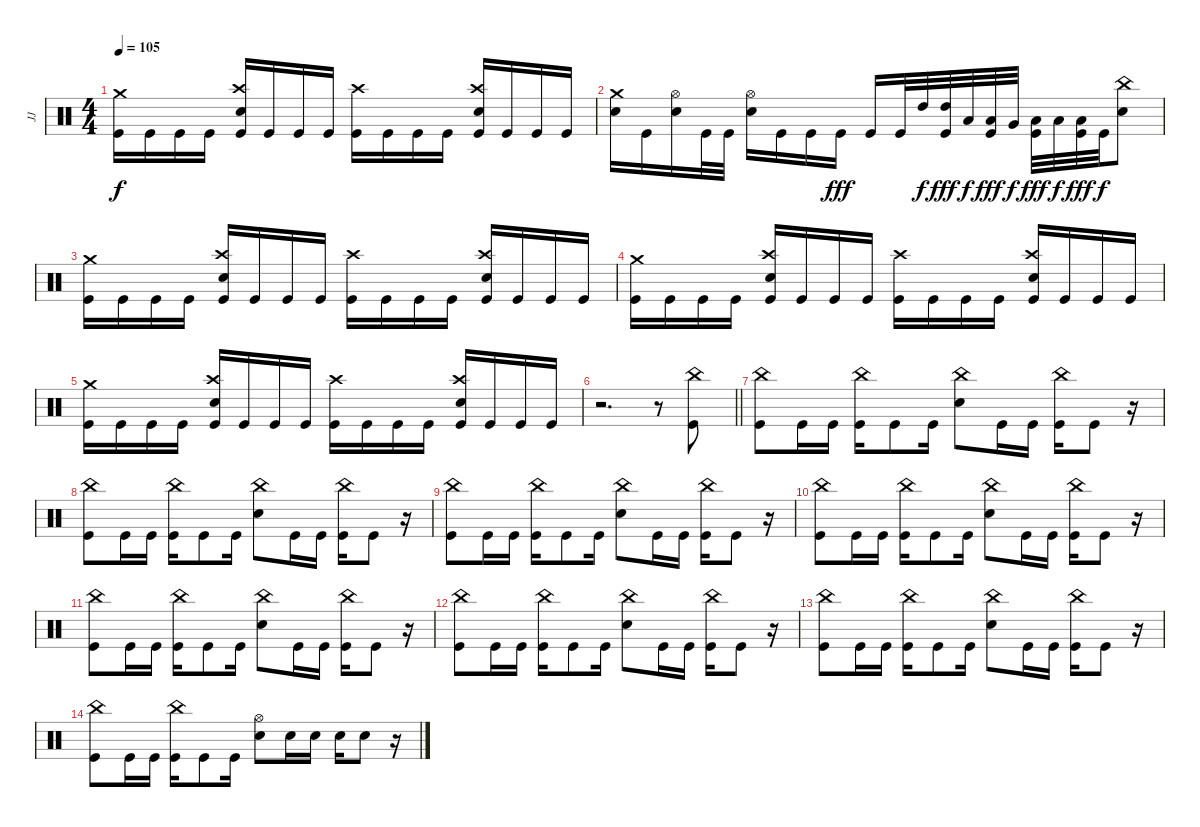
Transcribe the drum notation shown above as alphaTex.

\track ("JJ" "JJ") {instrument percussion}
\staff {score}
\articulation defaults
\ts (4 4)
\tempo 105
\clef neutral
\ks c
("Crash medium (hit)" "Kick (hit)").16{dy f} "Kick (hit)".16 "Kick (hit)".16 "Kick (hit)".16 ("Crash high (hit)" "Electric Snare (hit)" "Kick (hit)").16 "Kick (hit)".16 "Kick (hit)".16 "Kick (hit)".16 ("Crash high (hit)" "Kick (hit)").16 "Kick (hit)".16 "Kick (hit)".16 "Kick (hit)".16 ("Crash high (hit)" "Electric Snare (hit)" "Kick (hit)").16 "Kick (hit)".16 "Kick (hit)".16 "Kick (hit)".16 |
("Crash medium (hit)" "Electric Snare (hit)").16 "Kick (hit)".16 ("Hi-Hat (open)" "Electric Snare (hit)").16 "Kick (hit)".32 "Kick (hit)".32 ("Hi-Hat (open)" "Electric Snare (hit)").16 "Kick (hit)".16 "Kick (hit)".16 "Kick (hit)".16{dy fff} "Kick (hit)".16 "Kick (hit)".32 "High Tom (hit)".32{dy f} ("High Tom (hit)" "Kick (hit)").32{dy fff} "Low Tom (hit)".32{dy f} ("Low Tom (hit)" "Kick (hit)").32{dy fff} "Very Low Tom (hit)".32{dy f} ("Low Floor Tom (hit)" "Kick (hit)").32{dy fff} "Low Floor Tom (hit)".32{dy f} ("Low Floor Tom (hit)" "Kick (hit)").32{dy fff} "Kick (hit)".32{dy f} ("China (hit)" "Electric Snare (hit)").8 |
("Crash medium (hit)" "Kick (hit)").16 "Kick (hit)".16 "Kick (hit)".16 "Kick (hit)".16 ("Crash high (hit)" "Electric Snare (hit)" "Kick (hit)").16 "Kick (hit)".16 "Kick (hit)".16 "Kick (hit)".16 ("Crash high (hit)" "Kick (hit)").16 "Kick (hit)".16 "Kick (hit)".16 "Kick (hit)".16 ("Crash high (hit)" "Electric Snare (hit)" "Kick (hit)").16 "Kick (hit)".16 "Kick (hit)".16 "Kick (hit)".16 |
("Crash medium (hit)" "Kick (hit)").16 "Kick (hit)".16 "Kick (hit)".16 "Kick (hit)".16 ("Crash high (hit)" "Electric Snare (hit)" "Kick (hit)").16 "Kick (hit)".16 "Kick (hit)".16 "Kick (hit)".16 ("Crash high (hit)" "Kick (hit)").16 "Kick (hit)".16 "Kick (hit)".16 "Kick (hit)".16 ("Crash high (hit)" "Electric Snare (hit)" "Kick (hit)").16 "Kick (hit)".16 "Kick (hit)".16 "Kick (hit)".16 |
("Crash medium (hit)" "Kick (hit)").16 "Kick (hit)".16 "Kick (hit)".16 "Kick (hit)".16 ("Crash high (hit)" "Electric Snare (hit)" "Kick (hit)").16 "Kick (hit)".16 "Kick (hit)".16 "Kick (hit)".16 ("Crash high (hit)" "Kick (hit)").16 "Kick (hit)".16 "Kick (hit)".16 "Kick (hit)".16 ("Crash high (hit)" "Electric Snare (hit)" "Kick (hit)").16 "Kick (hit)".16 "Kick (hit)".16 "Kick (hit)".16 |
\barLineRight lightlight
r.2{d} r.8 ("China (hit)" "Kick (hit)").8 |
("China (hit)" "Kick (hit)").8 "Kick (hit)".16 "Kick (hit)".16 ("China (hit)" "Kick (hit)").16 "Kick (hit)".8 "Kick (hit)".16 ("China (hit)" "Electric Snare (hit)").8 "Kick (hit)".16 "Kick (hit)".16 ("China (hit)" "Kick (hit)").16 "Kick (hit)".8 r.16 |
("China (hit)" "Kick (hit)").8 "Kick (hit)".16 "Kick (hit)".16 ("China (hit)" "Kick (hit)").16 "Kick (hit)".8 "Kick (hit)".16 ("China (hit)" "Electric Snare (hit)").8 "Kick (hit)".16 "Kick (hit)".16 ("China (hit)" "Kick (hit)").16 "Kick (hit)".8 r.16 |
("China (hit)" "Kick (hit)").8 "Kick (hit)".16 "Kick (hit)".16 ("China (hit)" "Kick (hit)").16 "Kick (hit)".8 "Kick (hit)".16 ("China (hit)" "Electric Snare (hit)").8 "Kick (hit)".16 "Kick (hit)".16 ("China (hit)" "Kick (hit)").16 "Kick (hit)".8 r.16 |
("China (hit)" "Kick (hit)").8 "Kick (hit)".16 "Kick (hit)".16 ("China (hit)" "Kick (hit)").16 "Kick (hit)".8 "Kick (hit)".16 ("China (hit)" "Electric Snare (hit)").8 "Kick (hit)".16 "Kick (hit)".16 ("China (hit)" "Kick (hit)").16 "Kick (hit)".8 r.16 |
("China (hit)" "Kick (hit)").8 "Kick (hit)".16 "Kick (hit)".16 ("China (hit)" "Kick (hit)").16 "Kick (hit)".8 "Kick (hit)".16 ("China (hit)" "Electric Snare (hit)").8 "Kick (hit)".16 "Kick (hit)".16 ("China (hit)" "Kick (hit)").16 "Kick (hit)".8 r.16 |
("China (hit)" "Kick (hit)").8 "Kick (hit)".16 "Kick (hit)".16 ("China (hit)" "Kick (hit)").16 "Kick (hit)".8 "Kick (hit)".16 ("China (hit)" "Electric Snare (hit)").8 "Kick (hit)".16 "Kick (hit)".16 ("China (hit)" "Kick (hit)").16 "Kick (hit)".8 r.16 |
("China (hit)" "Kick (hit)").8 "Kick (hit)".16 "Kick (hit)".16 ("China (hit)" "Kick (hit)").16 "Kick (hit)".8 "Kick (hit)".16 ("China (hit)" "Electric Snare (hit)").8 "Kick (hit)".16 "Kick (hit)".16 ("China (hit)" "Kick (hit)").16 "Kick (hit)".8 r.16 |
("China (hit)" "Kick (hit)").8 "Kick (hit)".16 "Kick (hit)".16 ("China (hit)" "Kick (hit)").16 "Kick (hit)".8 "Kick (hit)".16 ("Hi-Hat (open)" "Electric Snare (hit)").8 "Electric Snare (hit)".16 "Electric Snare (hit)".16 "Electric Snare (hit)".16 "Electric Snare (hit)".8 r.16
